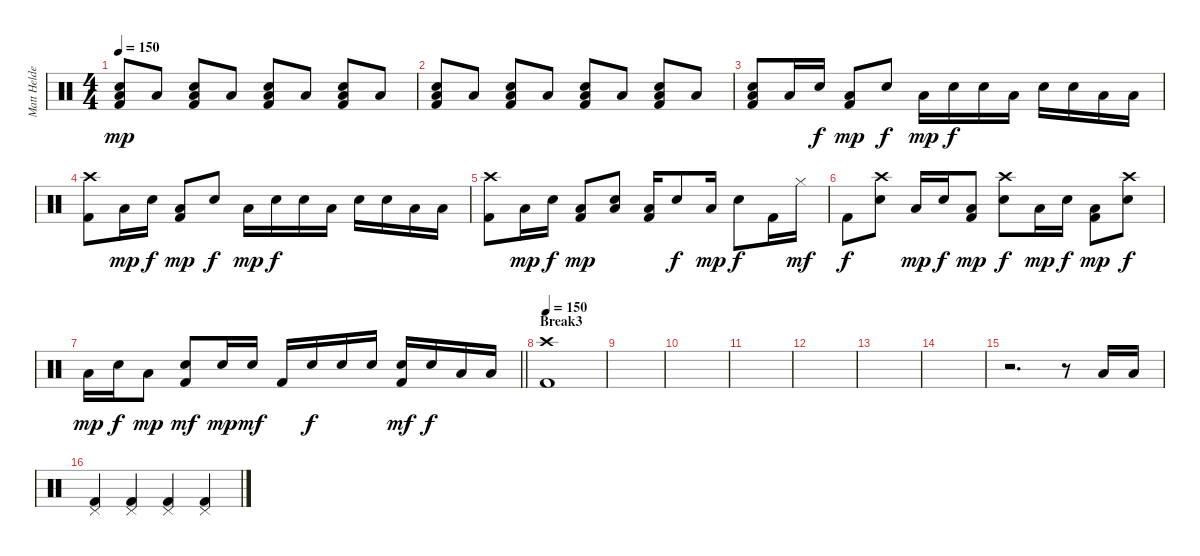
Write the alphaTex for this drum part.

\track ("Matt Helders - Drums MIDI" "Matt Helde") {instrument percussion}
\staff {score}
\articulation defaults
\ts (4 4)
\tempo 150
\clef neutral
\ks c
("Low Floor Tom (hit)" "Snare (hit) 2" "Kick (hit) 2").8{dy mp} "Low Floor Tom (hit)".8 ("Low Floor Tom (hit)" "Snare (hit) 2" "Kick (hit) 2").8 "Low Floor Tom (hit)".8 ("Low Floor Tom (hit)" "Snare (hit) 2" "Kick (hit) 2").8 "Low Floor Tom (hit)".8 ("Low Floor Tom (hit)" "Snare (hit) 2" "Kick (hit) 2").8 "Low Floor Tom (hit)".8 |
("Low Floor Tom (hit)" "Snare (hit) 2" "Kick (hit) 2").8 "Low Floor Tom (hit)".8 ("Low Floor Tom (hit)" "Snare (hit) 2" "Kick (hit) 2").8 "Low Floor Tom (hit)".8 ("Low Floor Tom (hit)" "Snare (hit) 2" "Kick (hit) 2").8 "Low Floor Tom (hit)".8 ("Low Floor Tom (hit)" "Snare (hit) 2" "Kick (hit) 2").8 "Low Floor Tom (hit)".8 |
("Low Floor Tom (hit)" "Snare (hit) 2" "Kick (hit) 2").8 "Low Floor Tom (hit)".16 "Snare (hit) 2".16{dy f} ("Low Floor Tom (hit)" "Kick (hit) 2").8{dy mp} "Snare (hit) 2".8{dy f} "Low Floor Tom (hit)".16{dy mp} "Snare (hit) 2".16{dy f} "Snare (hit) 2".16 "Low Tom (hit)".16 "Snare (hit) 2".16 "Snare (hit) 2".16 "Low Tom (hit)".16 "Low Floor Tom (hit)".16 |
("Crash high (hit)" "Kick (hit) 2").8 "Low Floor Tom (hit)".16{dy mp} "Snare (hit) 2".16{dy f} ("Low Floor Tom (hit)" "Kick (hit) 2").8{dy mp} "Snare (hit) 2".8{dy f} "Low Floor Tom (hit)".16{dy mp} "Snare (hit) 2".16{dy f} "Snare (hit) 2".16 "Low Tom (hit)".16 "Snare (hit) 2".16 "Snare (hit) 2".16 "Low Tom (hit)".16 "Low Floor Tom (hit)".16 |
("Crash high (hit)" "Kick (hit) 2").8 "Low Floor Tom (hit)".16{dy mp} "Snare (hit) 2".16{dy f} ("Low Floor Tom (hit)" "Kick (hit) 2").8{dy mp} ("Low Floor Tom (hit)" "Snare (hit) 2").8 ("Low Floor Tom (hit)" "Kick (hit) 2").16 "Snare (hit) 2".8{dy f} "Low Floor Tom (hit)".16{dy mp} "Snare (hit) 2".8{dy f} "Kick (hit) 2".16 "Hi-Hat (closed)".16{dy mf} |
"Kick (hit) 2".8{dy f} ("Crash high (hit)" "Snare (hit) 2").8 "Low Floor Tom (hit)".16{dy mp} "Snare (hit) 2".16{dy f} ("Low Floor Tom (hit)" "Kick (hit) 2").8{dy mp} ("Crash high (hit)" "Snare (hit) 2").8{dy f} "Low Floor Tom (hit)".16{dy mp} "Snare (hit) 2".16{dy f} ("Low Floor Tom (hit)" "Kick (hit) 2").8{dy mp} ("Crash high (hit)" "Snare (hit) 2").8{dy f} |
\barLineRight lightlight "Low Floor Tom (hit)".16{dy mp} "Snare (hit) 2".16{dy f} "Low Floor Tom (hit)".8{dy mp}
("Snare (hit) 2" "Kick (hit) 2").8{dy mf} "Snare (hit) 2".16{dy mp} "Snare (hit) 2".16{dy mf} "Kick (hit) 2".16 "Snare (hit) 2".16{dy f} "Snare (hit) 2".16 "Snare (hit) 2".16 ("Snare (hit) 2" "Kick (hit) 2").16{dy mf} "Snare (hit) 2".16{dy f} "Low Tom (hit)".16 "Low Tom (hit)".16 |
\section ("" "Break3")
\tempo 150
("Crash high (hit)" "Kick (hit) 2").1 |
|
|
|
|
|
|
r.2{d} r.8 "Low Tom (hit)".16 "Low Tom (hit)".16 |
("Pedal Hi-Hat (hit)" "Kick (hit) 2").4 ("Pedal Hi-Hat (hit)" "Kick (hit) 2").4 ("Pedal Hi-Hat (hit)" "Kick (hit) 2").4 ("Pedal Hi-Hat (hit)" "Kick (hit) 2").4
